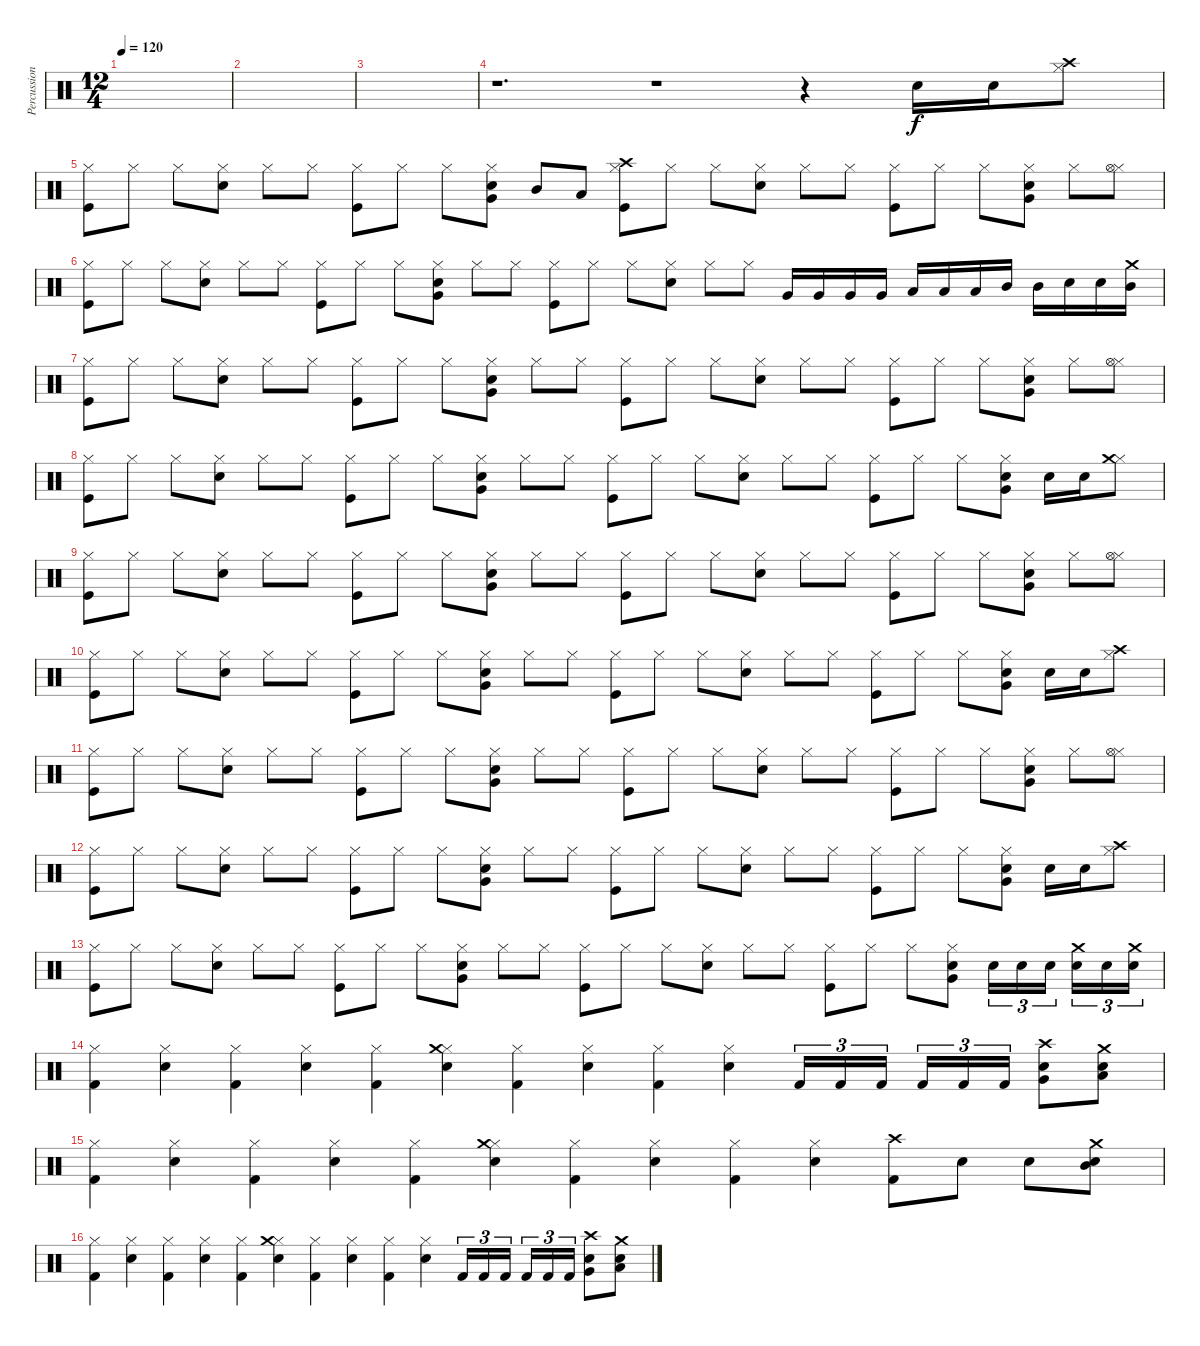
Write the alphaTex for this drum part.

\track ("Percussions" "Percussion") {instrument percussion}
\staff {score}
\articulation defaults
\ts (12 4)
\tempo 120
\clef neutral
\ks c
|
|
|
r.1{d} r.1 r.4 "Electric Snare (hit)".16 "Electric Snare (hit)".16 ("Hi-Hat (closed)" "Crash high (hit)").8 |
("Hi-Hat (closed)" "Kick (hit)").8 "Hi-Hat (closed)".8 "Hi-Hat (closed)".8 ("Hi-Hat (closed)" "Electric Snare (hit)").8 "Hi-Hat (closed)".8 "Hi-Hat (closed)".8 ("Hi-Hat (closed)" "Kick (hit)").8 "Hi-Hat (closed)".8 "Hi-Hat (closed)".8 ("Hi-Hat (closed)" "Very Low Tom (hit)" "Electric Snare (hit)").8 "Mid Tom (hit)".8 "Low Tom (hit)".8 ("Hi-Hat (closed)" "Kick (hit)" "Crash high (hit)").8 "Hi-Hat (closed)".8 "Hi-Hat (closed)".8 ("Hi-Hat (closed)" "Electric Snare (hit)").8 "Hi-Hat (closed)".8 "Hi-Hat (closed)".8 ("Hi-Hat (closed)" "Kick (hit)").8 "Hi-Hat (closed)".8 "Hi-Hat (closed)".8 ("Hi-Hat (closed)" "Electric Snare (hit)" "Very Low Tom (hit)").8 "Hi-Hat (closed)".8 ("Hi-Hat (closed)" "Hi-Hat (open)").8 |
("Hi-Hat (closed)" "Kick (hit)").8 "Hi-Hat (closed)".8 "Hi-Hat (closed)".8 ("Hi-Hat (closed)" "Electric Snare (hit)").8 "Hi-Hat (closed)".8 "Hi-Hat (closed)".8 ("Hi-Hat (closed)" "Kick (hit)").8 "Hi-Hat (closed)".8 "Hi-Hat (closed)".8 ("Hi-Hat (closed)" "Very Low Tom (hit)" "Electric Snare (hit)").8 "Hi-Hat (closed)".8 "Hi-Hat (closed)".8 ("Hi-Hat (closed)" "Kick (hit)").8 "Hi-Hat (closed)".8 "Hi-Hat (closed)".8 ("Hi-Hat (closed)" "Electric Snare (hit)").8 "Hi-Hat (closed)".8 "Hi-Hat (closed)".8 "Very Low Tom (hit)".16 "Very Low Tom (hit)".16 "Very Low Tom (hit)".16 "Very Low Tom (hit)".16 "Low Tom (hit)".16 "Low Tom (hit)".16 "Low Tom (hit)".16 "Mid Tom (hit)".16 "Mid Tom (hit)".16 "Electric Snare (hit)".16 "Electric Snare (hit)".16 ("Mid Tom (hit)" "Crash medium (hit)").16 |
("Hi-Hat (closed)" "Kick (hit)").8 "Hi-Hat (closed)".8 "Hi-Hat (closed)".8 ("Hi-Hat (closed)" "Electric Snare (hit)").8 "Hi-Hat (closed)".8 "Hi-Hat (closed)".8 ("Hi-Hat (closed)" "Kick (hit)").8 "Hi-Hat (closed)".8 "Hi-Hat (closed)".8 ("Hi-Hat (closed)" "Very Low Tom (hit)" "Electric Snare (hit)").8 "Hi-Hat (closed)".8 "Hi-Hat (closed)".8 ("Hi-Hat (closed)" "Kick (hit)").8 "Hi-Hat (closed)".8 "Hi-Hat (closed)".8 ("Hi-Hat (closed)" "Electric Snare (hit)").8 "Hi-Hat (closed)".8 "Hi-Hat (closed)".8 ("Hi-Hat (closed)" "Kick (hit)").8 "Hi-Hat (closed)".8 "Hi-Hat (closed)".8 ("Hi-Hat (closed)" "Electric Snare (hit)" "Very Low Tom (hit)").8 "Hi-Hat (closed)".8 ("Hi-Hat (closed)" "Hi-Hat (open)").8 |
("Hi-Hat (closed)" "Kick (hit)").8 "Hi-Hat (closed)".8 "Hi-Hat (closed)".8 ("Hi-Hat (closed)" "Electric Snare (hit)").8 "Hi-Hat (closed)".8 "Hi-Hat (closed)".8 ("Hi-Hat (closed)" "Kick (hit)").8 "Hi-Hat (closed)".8 "Hi-Hat (closed)".8 ("Hi-Hat (closed)" "Very Low Tom (hit)" "Electric Snare (hit)").8 "Hi-Hat (closed)".8 "Hi-Hat (closed)".8 ("Hi-Hat (closed)" "Kick (hit)").8 "Hi-Hat (closed)".8 "Hi-Hat (closed)".8 ("Hi-Hat (closed)" "Electric Snare (hit)").8 "Hi-Hat (closed)".8 "Hi-Hat (closed)".8 ("Hi-Hat (closed)" "Kick (hit)").8 "Hi-Hat (closed)".8 "Hi-Hat (closed)".8 ("Hi-Hat (closed)" "Electric Snare (hit)" "Very Low Tom (hit)").8 "Electric Snare (hit)".16 "Electric Snare (hit)".16 ("Hi-Hat (closed)" "Crash medium (hit)").8 |
("Hi-Hat (closed)" "Kick (hit)").8 "Hi-Hat (closed)".8 "Hi-Hat (closed)".8 ("Hi-Hat (closed)" "Electric Snare (hit)").8 "Hi-Hat (closed)".8 "Hi-Hat (closed)".8 ("Hi-Hat (closed)" "Kick (hit)").8 "Hi-Hat (closed)".8 "Hi-Hat (closed)".8 ("Hi-Hat (closed)" "Very Low Tom (hit)" "Electric Snare (hit)").8 "Hi-Hat (closed)".8 "Hi-Hat (closed)".8 ("Hi-Hat (closed)" "Kick (hit)").8 "Hi-Hat (closed)".8 "Hi-Hat (closed)".8 ("Hi-Hat (closed)" "Electric Snare (hit)").8 "Hi-Hat (closed)".8 "Hi-Hat (closed)".8 ("Hi-Hat (closed)" "Kick (hit)").8 "Hi-Hat (closed)".8 "Hi-Hat (closed)".8 ("Hi-Hat (closed)" "Electric Snare (hit)" "Very Low Tom (hit)").8 "Hi-Hat (closed)".8 ("Hi-Hat (closed)" "Hi-Hat (open)").8 |
("Hi-Hat (closed)" "Kick (hit)").8 "Hi-Hat (closed)".8 "Hi-Hat (closed)".8 ("Hi-Hat (closed)" "Electric Snare (hit)").8 "Hi-Hat (closed)".8 "Hi-Hat (closed)".8 ("Hi-Hat (closed)" "Kick (hit)").8 "Hi-Hat (closed)".8 "Hi-Hat (closed)".8 ("Hi-Hat (closed)" "Very Low Tom (hit)" "Electric Snare (hit)").8 "Hi-Hat (closed)".8 "Hi-Hat (closed)".8 ("Hi-Hat (closed)" "Kick (hit)").8 "Hi-Hat (closed)".8 "Hi-Hat (closed)".8 ("Hi-Hat (closed)" "Electric Snare (hit)").8 "Hi-Hat (closed)".8 "Hi-Hat (closed)".8 ("Hi-Hat (closed)" "Kick (hit)").8 "Hi-Hat (closed)".8 "Hi-Hat (closed)".8 ("Hi-Hat (closed)" "Electric Snare (hit)" "Very Low Tom (hit)").8 "Electric Snare (hit)".16 "Electric Snare (hit)".16 ("Hi-Hat (closed)" "Crash high (hit)").8 |
("Hi-Hat (closed)" "Kick (hit)").8 "Hi-Hat (closed)".8 "Hi-Hat (closed)".8 ("Hi-Hat (closed)" "Electric Snare (hit)").8 "Hi-Hat (closed)".8 "Hi-Hat (closed)".8 ("Hi-Hat (closed)" "Kick (hit)").8 "Hi-Hat (closed)".8 "Hi-Hat (closed)".8 ("Hi-Hat (closed)" "Very Low Tom (hit)" "Electric Snare (hit)").8 "Hi-Hat (closed)".8 "Hi-Hat (closed)".8 ("Hi-Hat (closed)" "Kick (hit)").8 "Hi-Hat (closed)".8 "Hi-Hat (closed)".8 ("Hi-Hat (closed)" "Electric Snare (hit)").8 "Hi-Hat (closed)".8 "Hi-Hat (closed)".8 ("Hi-Hat (closed)" "Kick (hit)").8 "Hi-Hat (closed)".8 "Hi-Hat (closed)".8 ("Hi-Hat (closed)" "Electric Snare (hit)" "Very Low Tom (hit)").8 "Hi-Hat (closed)".8 ("Hi-Hat (closed)" "Hi-Hat (open)").8 |
("Hi-Hat (closed)" "Kick (hit)").8 "Hi-Hat (closed)".8 "Hi-Hat (closed)".8 ("Hi-Hat (closed)" "Electric Snare (hit)").8 "Hi-Hat (closed)".8 "Hi-Hat (closed)".8 ("Hi-Hat (closed)" "Kick (hit)").8 "Hi-Hat (closed)".8 "Hi-Hat (closed)".8 ("Hi-Hat (closed)" "Very Low Tom (hit)" "Electric Snare (hit)").8 "Hi-Hat (closed)".8 "Hi-Hat (closed)".8 ("Hi-Hat (closed)" "Kick (hit)").8 "Hi-Hat (closed)".8 "Hi-Hat (closed)".8 ("Hi-Hat (closed)" "Electric Snare (hit)").8 "Hi-Hat (closed)".8 "Hi-Hat (closed)".8 ("Hi-Hat (closed)" "Kick (hit)").8 "Hi-Hat (closed)".8 "Hi-Hat (closed)".8 ("Hi-Hat (closed)" "Electric Snare (hit)" "Very Low Tom (hit)").8 "Electric Snare (hit)".16 "Electric Snare (hit)".16 ("Hi-Hat (closed)" "Crash high (hit)").8 |
("Hi-Hat (closed)" "Kick (hit)").8 "Hi-Hat (closed)".8 "Hi-Hat (closed)".8 ("Hi-Hat (closed)" "Electric Snare (hit)").8 "Hi-Hat (closed)".8 "Hi-Hat (closed)".8 ("Hi-Hat (closed)" "Kick (hit)").8 "Hi-Hat (closed)".8 "Hi-Hat (closed)".8 ("Hi-Hat (closed)" "Very Low Tom (hit)" "Electric Snare (hit)").8 "Hi-Hat (closed)".8 "Hi-Hat (closed)".8 ("Hi-Hat (closed)" "Kick (hit)").8 "Hi-Hat (closed)".8 "Hi-Hat (closed)".8 ("Hi-Hat (closed)" "Electric Snare (hit)").8 "Hi-Hat (closed)".8 "Hi-Hat (closed)".8 ("Hi-Hat (closed)" "Kick (hit)").8 "Hi-Hat (closed)".8 "Hi-Hat (closed)".8 ("Hi-Hat (closed)" "Electric Snare (hit)" "Very Low Tom (hit)").8 "Electric Snare (hit)".16{tu (3 2)} "Electric Snare (hit)".16{tu (3 2)} "Electric Snare (hit)".16{tu (3 2)} ("Electric Snare (hit)" "Crash medium (hit)").16{tu (3 2)} "Electric Snare (hit)".16{tu (3 2)} ("Electric Snare (hit)" "Crash medium (hit)").16{tu (3 2)} |
("Hi-Hat (closed)" "Kick (hit) 2").4 ("Hi-Hat (closed)" "Electric Snare (hit)").4 ("Hi-Hat (closed)" "Kick (hit) 2").4 ("Hi-Hat (closed)" "Electric Snare (hit)").4 ("Hi-Hat (closed)" "Kick (hit) 2").4 ("Hi-Hat (closed)" "Electric Snare (hit)" "Crash medium (hit)").4 ("Hi-Hat (closed)" "Kick (hit) 2").4 ("Hi-Hat (closed)" "Electric Snare (hit)").4 ("Hi-Hat (closed)" "Kick (hit) 2").4 ("Hi-Hat (closed)" "Electric Snare (hit)").4 "Kick (hit) 2".16{tu (3 2)} "Kick (hit) 2".16{tu (3 2)} "Kick (hit) 2".16{tu (3 2)} "Kick (hit) 2".16{tu (3 2)} "Kick (hit) 2".16{tu (3 2)} "Kick (hit) 2".16{tu (3 2)} ("Very Low Tom (hit)" "Electric Snare (hit)" "Crash high (hit)").8 ("Electric Snare (hit)" "Low Tom (hit)" "Crash medium (hit)").8 |
("Hi-Hat (closed)" "Kick (hit) 2").4 ("Hi-Hat (closed)" "Electric Snare (hit)").4 ("Hi-Hat (closed)" "Kick (hit) 2").4 ("Hi-Hat (closed)" "Electric Snare (hit)").4 ("Hi-Hat (closed)" "Kick (hit) 2").4 ("Hi-Hat (closed)" "Electric Snare (hit)" "Crash medium (hit)").4 ("Hi-Hat (closed)" "Kick (hit) 2").4 ("Hi-Hat (closed)" "Electric Snare (hit)").4 ("Hi-Hat (closed)" "Kick (hit) 2").4 ("Hi-Hat (closed)" "Electric Snare (hit)").4 ("Kick (hit) 2" "Crash high (hit)").8 "Electric Snare (hit)".8 "Electric Snare (hit)".8 ("Electric Snare (hit)" "Crash medium (hit)" "Mid Tom (hit)").8 |
("Hi-Hat (closed)" "Kick (hit) 2").4 ("Hi-Hat (closed)" "Electric Snare (hit)").4 ("Hi-Hat (closed)" "Kick (hit) 2").4 ("Hi-Hat (closed)" "Electric Snare (hit)").4 ("Hi-Hat (closed)" "Kick (hit) 2").4 ("Hi-Hat (closed)" "Electric Snare (hit)" "Crash medium (hit)").4 ("Hi-Hat (closed)" "Kick (hit) 2").4 ("Hi-Hat (closed)" "Electric Snare (hit)").4 ("Hi-Hat (closed)" "Kick (hit) 2").4 ("Hi-Hat (closed)" "Electric Snare (hit)").4 "Kick (hit) 2".16{tu (3 2)} "Kick (hit) 2".16{tu (3 2)} "Kick (hit) 2".16{tu (3 2)} "Kick (hit) 2".16{tu (3 2)} "Kick (hit) 2".16{tu (3 2)} "Kick (hit) 2".16{tu (3 2)} ("Very Low Tom (hit)" "Electric Snare (hit)" "Crash high (hit)").8 ("Electric Snare (hit)" "Low Tom (hit)" "Crash medium (hit)").8
